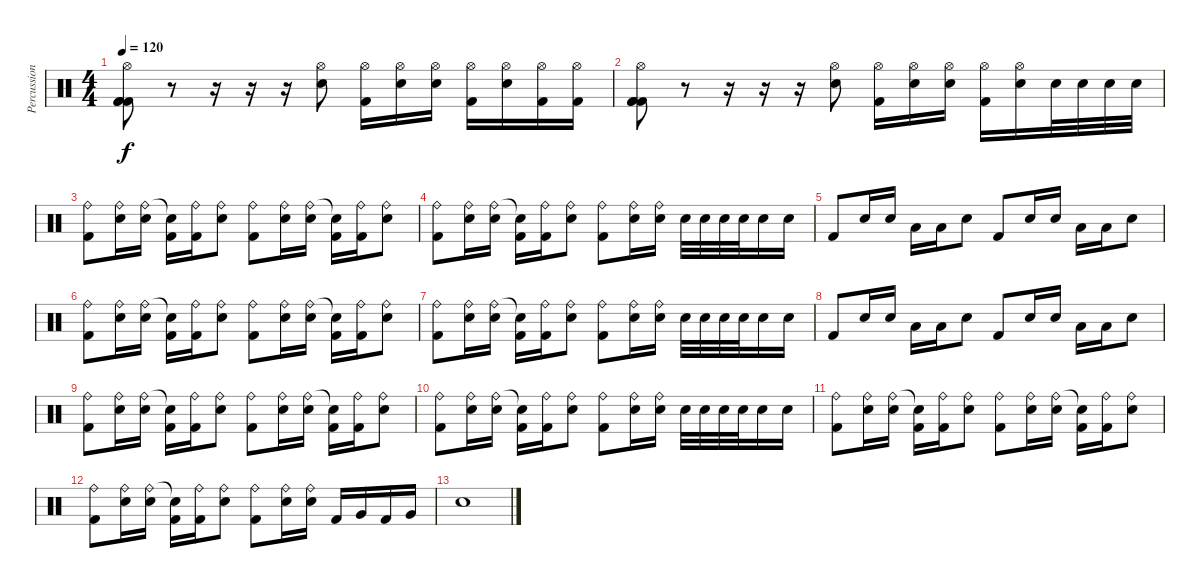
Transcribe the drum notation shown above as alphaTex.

\track ("Percussion" "Percussion") {instrument percussion}
\staff {score}
\articulation defaults
\ts (4 4)
\tempo 120
\clef neutral
\ks c
("Hi-Hat (open)" "Kick (hit) 2" "Kick (hit) 2" "Kick (hit) 2").8{dy f} r.8 r.16 r.16 r.16 ("Hi-Hat (open)" "Snare (hit) 2").8 ("Hi-Hat (open)" "Kick (hit) 2").16 ("Hi-Hat (open)" "Snare (hit) 2").16 ("Hi-Hat (open)" "Snare (hit) 2").16 ("Hi-Hat (open)" "Kick (hit) 2").16 ("Hi-Hat (open)" "Snare (hit) 2").16 ("Hi-Hat (open)" "Kick (hit) 2").16 ("Hi-Hat (open)" "Kick (hit) 2").16 |
("Hi-Hat (open)" "Kick (hit) 2" "Kick (hit) 2" "Kick (hit) 2").8 r.8 r.16 r.16 r.16 ("Hi-Hat (open)" "Snare (hit) 2").8 ("Hi-Hat (open)" "Kick (hit) 2").16 ("Hi-Hat (open)" "Snare (hit) 2").16 ("Hi-Hat (open)" "Snare (hit) 2").16 ("Hi-Hat (open)" "Kick (hit) 2").16 ("Hi-Hat (open)" "Snare (hit) 2").16 "Snare (hit) 2".32 "Snare (hit) 2".32 "Snare (hit) 2".32 "Snare (hit) 2".32 |
("Ride (bell)" "Kick (hit) 2").8 ("Ride (bell)" "Snare (hit) 2").16 ("Ride (bell)" "Snare (hit) 2").16 ("Snare (hit)"{t} "Kick (hit) 2").16 ("Ride (bell)" "Kick (hit) 2").16 ("Ride (bell)" "Snare (hit) 2").8 ("Ride (bell)" "Kick (hit) 2").8 ("Ride (bell)" "Snare (hit) 2").16 ("Ride (bell)" "Snare (hit) 2").16 ("Snare (hit)"{t} "Kick (hit) 2").16 ("Ride (bell)" "Kick (hit) 2").16 ("Ride (bell)" "Snare (hit) 2").8 |
("Ride (bell)" "Kick (hit) 2").8 ("Ride (bell)" "Snare (hit) 2").16 ("Ride (bell)" "Snare (hit) 2").16 ("Snare (hit)"{t} "Kick (hit) 2").16 ("Ride (bell)" "Kick (hit) 2").16 ("Ride (bell)" "Snare (hit) 2").8 ("Ride (bell)" "Kick (hit) 2").8 ("Ride (bell)" "Snare (hit) 2").16 ("Ride (bell)" "Snare (hit) 2").16 "Snare (hit) 2".32 "Snare (hit) 2".32 "Snare (hit) 2".32 "Snare (hit) 2".32 "Snare (hit) 2".16 "Snare (hit) 2".16 |
"Kick (hit) 2".8 "Snare (hit) 2".16 "Snare (hit) 2".16 "Low Tom (hit)".16 "Low Tom (hit)".16 "Snare (hit) 2".8 "Kick (hit) 2".8 "Snare (hit) 2".16 "Snare (hit) 2".16 "Low Tom (hit)".16 "Low Tom (hit)".16 "Snare (hit) 2".8 |
("Ride (bell)" "Kick (hit) 2").8 ("Ride (bell)" "Snare (hit) 2").16 ("Ride (bell)" "Snare (hit) 2").16 ("Snare (hit)"{t} "Kick (hit) 2").16 ("Ride (bell)" "Kick (hit) 2").16 ("Ride (bell)" "Snare (hit) 2").8 ("Ride (bell)" "Kick (hit) 2").8 ("Ride (bell)" "Snare (hit) 2").16 ("Ride (bell)" "Snare (hit) 2").16 ("Snare (hit)"{t} "Kick (hit) 2").16 ("Ride (bell)" "Kick (hit) 2").16 ("Ride (bell)" "Snare (hit) 2").8 |
("Ride (bell)" "Kick (hit) 2").8 ("Ride (bell)" "Snare (hit) 2").16 ("Ride (bell)" "Snare (hit) 2").16 ("Snare (hit)"{t} "Kick (hit) 2").16 ("Ride (bell)" "Kick (hit) 2").16 ("Ride (bell)" "Snare (hit) 2").8 ("Ride (bell)" "Kick (hit) 2").8 ("Ride (bell)" "Snare (hit) 2").16 ("Ride (bell)" "Snare (hit) 2").16 "Snare (hit) 2".32 "Snare (hit) 2".32 "Snare (hit) 2".32 "Snare (hit) 2".32 "Snare (hit) 2".16 "Snare (hit) 2".16 |
"Kick (hit) 2".8 "Snare (hit) 2".16 "Snare (hit) 2".16 "Low Tom (hit)".16 "Low Tom (hit)".16 "Snare (hit) 2".8 "Kick (hit) 2".8 "Snare (hit) 2".16 "Snare (hit) 2".16 "Low Tom (hit)".16 "Low Tom (hit)".16 "Snare (hit) 2".8 |
("Ride (bell)" "Kick (hit) 2").8 ("Ride (bell)" "Snare (hit) 2").16 ("Ride (bell)" "Snare (hit) 2").16 ("Snare (hit)"{t} "Kick (hit) 2").16 ("Ride (bell)" "Kick (hit) 2").16 ("Ride (bell)" "Snare (hit) 2").8 ("Ride (bell)" "Kick (hit) 2").8 ("Ride (bell)" "Snare (hit) 2").16 ("Ride (bell)" "Snare (hit) 2").16 ("Snare (hit)"{t} "Kick (hit) 2").16 ("Ride (bell)" "Kick (hit) 2").16 ("Ride (bell)" "Snare (hit) 2").8 |
("Ride (bell)" "Kick (hit) 2").8 ("Ride (bell)" "Snare (hit) 2").16 ("Ride (bell)" "Snare (hit) 2").16 ("Snare (hit)"{t} "Kick (hit) 2").16 ("Ride (bell)" "Kick (hit) 2").16 ("Ride (bell)" "Snare (hit) 2").8 ("Ride (bell)" "Kick (hit) 2").8 ("Ride (bell)" "Snare (hit) 2").16 ("Ride (bell)" "Snare (hit) 2").16 "Snare (hit) 2".32 "Snare (hit) 2".32 "Snare (hit) 2".32 "Snare (hit) 2".32 "Snare (hit) 2".16 "Snare (hit) 2".16 |
("Ride (bell)" "Kick (hit) 2").8 ("Ride (bell)" "Snare (hit) 2").16 ("Ride (bell)" "Snare (hit) 2").16 ("Snare (hit)"{t} "Kick (hit) 2").16 ("Ride (bell)" "Kick (hit) 2").16 ("Ride (bell)" "Snare (hit) 2").8 ("Ride (bell)" "Kick (hit) 2").8 ("Ride (bell)" "Snare (hit) 2").16 ("Ride (bell)" "Snare (hit) 2").16 ("Snare (hit)"{t} "Kick (hit) 2").16 ("Ride (bell)" "Kick (hit) 2").16 ("Ride (bell)" "Snare (hit) 2").8 |
("Ride (bell)" "Kick (hit) 2").8 ("Ride (bell)" "Snare (hit) 2").16 ("Ride (bell)" "Snare (hit) 2").16 ("Snare (hit)"{t} "Kick (hit) 2").16 ("Ride (bell)" "Kick (hit) 2").16 ("Ride (bell)" "Snare (hit) 2").8 ("Ride (bell)" "Kick (hit) 2").8 ("Ride (bell)" "Snare (hit) 2").16 ("Ride (bell)" "Snare (hit) 2").16 "Kick (hit) 2".16 "Very Low Tom (hit)".16 "Kick (hit) 2".16 "Very Low Tom (hit)".16 |
"Snare (hit) 2".1
